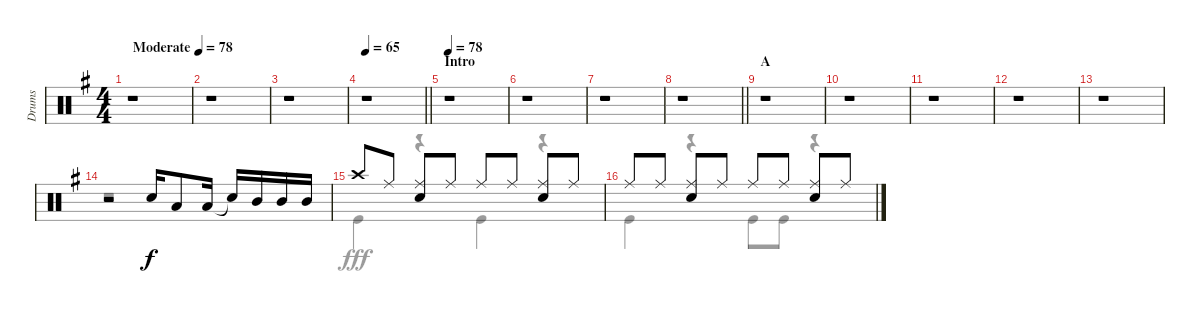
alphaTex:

\track ("Drums" "Drums") {instrument percussion}
\staff {score}
\articulation defaults
\voice
\ts (4 4)
\tempo (78 "Moderate")
\clef neutral
\ks g
r.1{dy f} |
r.1 |
r.1 |
\tempo 65
\barLineRight lightlight
r.1 |
\section ("" "Intro")
\tempo 78
r.1 |
r.1 |
r.1 |
\barLineRight lightlight
r.1 |
\section ("" "A")
r.1 |
r.1 |
r.1 |
r.1 |
r.1 |
r.2 "Snare (hit) 2".16 "Low Tom (hit)".8 "Low Tom (hit)".16 "Snare (hit)"{t}.16 "Mid Tom (hit)".16 "Mid Tom (hit)".16 "Mid Tom (hit)".16 |
"Crash high (hit)".8 "Ride (middle)".8 ("Ride (middle)" "Snare (hit) 2").8 "Ride (middle)".8 "Ride (middle)".8 "Ride (middle)".8 ("Ride (middle)" "Snare (hit) 2").8 "Ride (middle)".8 |
"Ride (middle)".8 "Ride (middle)".8 ("Ride (middle)" "Snare (hit) 2").8 "Ride (middle)".8 "Ride (middle)".8 "Ride (middle)".8 ("Ride (middle)" "Snare (hit) 2").8 "Ride (middle)".8
\voice
\clef neutral
\ottava regular
\simile none
\ks g
r.1{dy fff} |
r.1 |
r.1 |
\barLineRight lightlight
r.1 |
r.1 |
r.1 |
r.1 |
\barLineRight lightlight
r.1 |
r.1 |
r.1 |
r.1 |
r.1 |
r.1 |
r.1 |
"Kick (hit)".4 r.4 "Kick (hit)".4 r.4 |
"Kick (hit)".4 r.4 "Kick (hit)".8 "Kick (hit)".8 r.4
